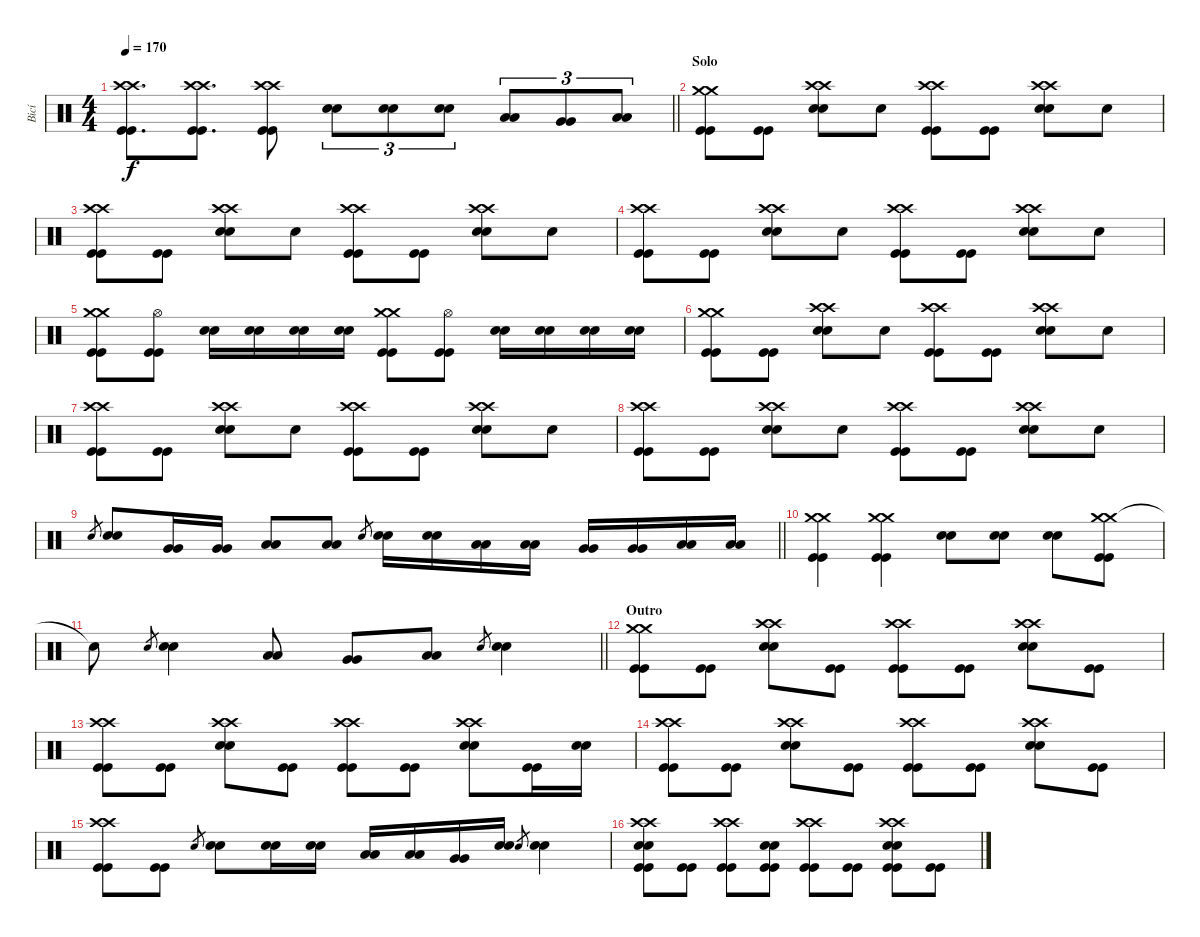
\track ("Bicí" "Bicí") {instrument percussion}
\staff {score}
\articulation defaults
\ts (4 4)
\tempo 170
\clef neutral
\barLineRight lightlight
\ks c
("Crash high (hit)" "Crash high (hit)" "Kick (hit)" "Kick (hit)").8{d dy f} ("Crash high (hit)" "Crash high (hit)" "Kick (hit)" "Kick (hit)").8{d} ("Crash high (hit)" "Crash high (hit)" "Kick (hit)" "Kick (hit)").8 ("Electric Snare (hit)" "Electric Snare (hit)").8{tu (3 2)} ("Electric Snare (hit)" "Electric Snare (hit)").8{tu (3 2)} ("Electric Snare (hit)" "Electric Snare (hit)").8{tu (3 2)} ("Low Tom (hit)" "Low Tom (hit)").8{tu (3 2)} ("Very Low Tom (hit)" "Very Low Tom (hit)").8{tu (3 2)} ("Low Floor Tom (hit)" "Low Floor Tom (hit)").8{tu (3 2)} |
\section ("" "Solo")
("Crash medium (hit)" "Crash medium (hit)" "Kick (hit)" "Kick (hit)").8 ("Kick (hit)" "Kick (hit)").8 ("Crash high (hit)" "Crash high (hit)" "Electric Snare (hit)" "Electric Snare (hit)").8 "Snare (hit)".8 ("Crash high (hit)" "Crash high (hit)" "Kick (hit)" "Kick (hit)").8 ("Kick (hit)" "Kick (hit)").8 ("Crash high (hit)" "Crash high (hit)" "Electric Snare (hit)" "Electric Snare (hit)").8 "Snare (hit)".8 |
("Crash high (hit)" "Crash high (hit)" "Kick (hit)" "Kick (hit)").8 ("Kick (hit)" "Kick (hit)").8 ("Crash high (hit)" "Crash high (hit)" "Electric Snare (hit)" "Electric Snare (hit)").8 "Snare (hit)".8 ("Crash high (hit)" "Crash high (hit)" "Kick (hit)" "Kick (hit)").8 ("Kick (hit)" "Kick (hit)").8 ("Crash high (hit)" "Crash high (hit)" "Electric Snare (hit)" "Electric Snare (hit)").8 "Snare (hit)".8 |
("Crash high (hit)" "Crash high (hit)" "Kick (hit)" "Kick (hit)").8 ("Kick (hit)" "Kick (hit)").8 ("Crash high (hit)" "Crash high (hit)" "Electric Snare (hit)" "Electric Snare (hit)").8 "Snare (hit)".8 ("Crash high (hit)" "Crash high (hit)" "Kick (hit)" "Kick (hit)").8 ("Kick (hit)" "Kick (hit)").8 ("Crash high (hit)" "Crash high (hit)" "Electric Snare (hit)" "Electric Snare (hit)").8 "Snare (hit)".8 |
("Crash medium (hit)" "Crash medium (hit)" "Kick (hit)" "Kick (hit)").8 ("Hi-Hat (open)" "Kick (hit)" "Kick (hit)").8 ("Electric Snare (hit)" "Electric Snare (hit)").16 ("Electric Snare (hit)" "Electric Snare (hit)").16 ("Electric Snare (hit)" "Electric Snare (hit)").16 ("Electric Snare (hit)" "Electric Snare (hit)").16 ("Crash medium (hit)" "Crash medium (hit)" "Kick (hit)" "Kick (hit)").8 ("Hi-Hat (open)" "Kick (hit)" "Kick (hit)").8 ("Electric Snare (hit)" "Electric Snare (hit)").16 ("Electric Snare (hit)" "Electric Snare (hit)").16 ("Electric Snare (hit)" "Electric Snare (hit)").16 ("Electric Snare (hit)" "Electric Snare (hit)").16 |
("Crash medium (hit)" "Crash medium (hit)" "Kick (hit)" "Kick (hit)").8 ("Kick (hit)" "Kick (hit)").8 ("Crash high (hit)" "Crash high (hit)" "Electric Snare (hit)" "Electric Snare (hit)").8 "Snare (hit)".8 ("Crash high (hit)" "Crash high (hit)" "Kick (hit)" "Kick (hit)").8 ("Kick (hit)" "Kick (hit)").8 ("Crash high (hit)" "Crash high (hit)" "Electric Snare (hit)" "Electric Snare (hit)").8 "Snare (hit)".8 |
("Crash high (hit)" "Crash high (hit)" "Kick (hit)" "Kick (hit)").8 ("Kick (hit)" "Kick (hit)").8 ("Crash high (hit)" "Crash high (hit)" "Electric Snare (hit)" "Electric Snare (hit)").8 "Snare (hit)".8 ("Crash high (hit)" "Crash high (hit)" "Kick (hit)" "Kick (hit)").8 ("Kick (hit)" "Kick (hit)").8 ("Crash high (hit)" "Crash high (hit)" "Electric Snare (hit)" "Electric Snare (hit)").8 "Snare (hit)".8 |
("Crash high (hit)" "Crash high (hit)" "Kick (hit)" "Kick (hit)").8 ("Kick (hit)" "Kick (hit)").8 ("Crash high (hit)" "Crash high (hit)" "Electric Snare (hit)" "Electric Snare (hit)").8 "Snare (hit)".8 ("Crash high (hit)" "Crash high (hit)" "Kick (hit)" "Kick (hit)").8 ("Kick (hit)" "Kick (hit)").8 ("Crash high (hit)" "Crash high (hit)" "Electric Snare (hit)" "Electric Snare (hit)").8 "Snare (hit)".8 |
\barLineRight lightlight "Electric Snare (hit)".8{gr}
("Electric Snare (hit)" "Electric Snare (hit)").8 ("Very Low Tom (hit)" "Very Low Tom (hit)").16 ("Very Low Tom (hit)" "Very Low Tom (hit)").16 ("Low Floor Tom (hit)" "Low Floor Tom (hit)").8 ("Low Floor Tom (hit)" "Low Floor Tom (hit)").8 "Electric Snare (hit)".8{gr} ("Electric Snare (hit)" "Electric Snare (hit)").16 ("Electric Snare (hit)" "Electric Snare (hit)").16 ("Low Tom (hit)" "Low Tom (hit)").16 ("Low Tom (hit)" "Low Tom (hit)").16 ("Very Low Tom (hit)" "Very Low Tom (hit)").16 ("Very Low Tom (hit)" "Very Low Tom (hit)").16 ("Low Floor Tom (hit)" "Low Floor Tom (hit)").16 ("Low Floor Tom (hit)" "Low Floor Tom (hit)").16 |
\section ("" "")
("Crash medium (hit)" "Crash medium (hit)" "Kick (hit)" "Kick (hit)").4 ("Crash medium (hit)" "Crash medium (hit)" "Kick (hit)" "Kick (hit)").4 ("Electric Snare (hit)" "Electric Snare (hit)").8 ("Electric Snare (hit)" "Electric Snare (hit)").8 ("Electric Snare (hit)" "Electric Snare (hit)").8 ("Crash medium (hit)" "Crash medium (hit)" "Kick (hit)" "Kick (hit)").8 |
\barLineRight lightlight "Snare (hit)"{t}.8 "Electric Snare (hit)".8{gr}
("Electric Snare (hit)" "Electric Snare (hit)").4 ("Low Tom (hit)" "Low Tom (hit)").8 ("Very Low Tom (hit)" "Very Low Tom (hit)").8 ("Low Floor Tom (hit)" "Low Floor Tom (hit)").8 "Electric Snare (hit)".8{gr} ("Electric Snare (hit)" "Electric Snare (hit)").4 |
\section ("" "Outro")
("Crash medium (hit)" "Crash medium (hit)" "Kick (hit)" "Kick (hit)").8 ("Kick (hit)" "Kick (hit)").8 ("Crash high (hit)" "Crash high (hit)" "Electric Snare (hit)" "Electric Snare (hit)").8 ("Kick (hit)" "Kick (hit)").8 ("Crash high (hit)" "Crash high (hit)" "Kick (hit)" "Kick (hit)").8 ("Kick (hit)" "Kick (hit)").8 ("Crash high (hit)" "Crash high (hit)" "Electric Snare (hit)" "Electric Snare (hit)").8 ("Kick (hit)" "Kick (hit)").8 |
("Crash high (hit)" "Crash high (hit)" "Kick (hit)" "Kick (hit)").8 ("Kick (hit)" "Kick (hit)").8 ("Crash high (hit)" "Crash high (hit)" "Electric Snare (hit)" "Electric Snare (hit)").8 ("Kick (hit)" "Kick (hit)").8 ("Crash high (hit)" "Crash high (hit)" "Kick (hit)" "Kick (hit)").8 ("Kick (hit)" "Kick (hit)").8 ("Crash high (hit)" "Crash high (hit)" "Electric Snare (hit)" "Electric Snare (hit)").8 ("Kick (hit)" "Kick (hit)").16 ("Electric Snare (hit)" "Electric Snare (hit)").16 |
("Crash high (hit)" "Crash high (hit)" "Kick (hit)" "Kick (hit)").8 ("Kick (hit)" "Kick (hit)").8 ("Crash high (hit)" "Crash high (hit)" "Electric Snare (hit)" "Electric Snare (hit)").8 ("Kick (hit)" "Kick (hit)").8 ("Crash high (hit)" "Crash high (hit)" "Kick (hit)" "Kick (hit)").8 ("Kick (hit)" "Kick (hit)").8 ("Crash high (hit)" "Crash high (hit)" "Electric Snare (hit)" "Electric Snare (hit)").8 ("Kick (hit)" "Kick (hit)").8 |
("Crash high (hit)" "Crash high (hit)" "Kick (hit)" "Kick (hit)").8 ("Kick (hit)" "Kick (hit)").8 "Electric Snare (hit)".8{gr} ("Electric Snare (hit)" "Electric Snare (hit)").8 ("Electric Snare (hit)" "Electric Snare (hit)").16 ("Electric Snare (hit)" "Electric Snare (hit)").16 ("Low Tom (hit)" "Low Tom (hit)").16 ("Low Tom (hit)" "Low Tom (hit)").16 ("Very Low Tom (hit)" "Very Low Tom (hit)").16 ("Electric Snare (hit)" "Electric Snare (hit)").16 "Electric Snare (hit)".8{gr} ("Electric Snare (hit)" "Electric Snare (hit)").4 |
("Crash high (hit)" "Crash high (hit)" "Electric Snare (hit)" "Electric Snare (hit)" "Kick (hit)" "Kick (hit)").8 ("Kick (hit)" "Kick (hit)").8 ("Crash high (hit)" "Crash high (hit)" "Kick (hit)" "Kick (hit)").8 ("Electric Snare (hit)" "Electric Snare (hit)" "Kick (hit)" "Kick (hit)").8 ("Crash high (hit)" "Crash high (hit)" "Kick (hit)" "Kick (hit)").8 ("Kick (hit)" "Kick (hit)").8 ("Crash high (hit)" "Crash high (hit)" "Electric Snare (hit)" "Electric Snare (hit)" "Kick (hit)" "Kick (hit)").8 ("Kick (hit)" "Kick (hit)").8
